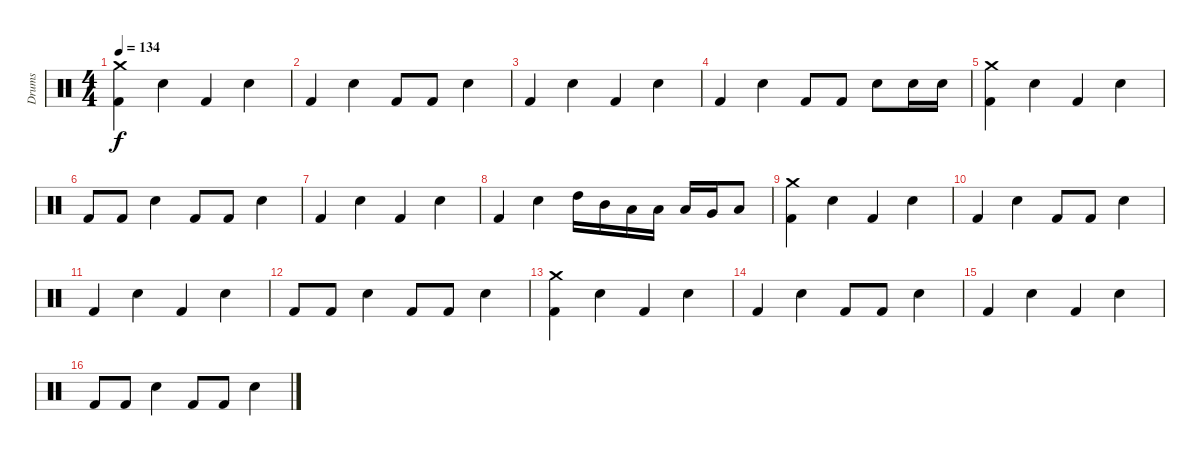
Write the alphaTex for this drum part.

\track ("Drums" "Drums") {instrument percussion}
\staff {score}
\articulation defaults
\ts (4 4)
\tempo 134
\clef neutral
\ks c
("Crash medium (hit)" "Kick (hit) 2").4{dy f} "Snare (hit) 2".4 "Kick (hit) 2".4 "Snare (hit) 2".4 |
"Kick (hit) 2".4 "Snare (hit) 2".4 "Kick (hit) 2".8 "Kick (hit) 2".8 "Snare (hit) 2".4 |
"Kick (hit) 2".4 "Snare (hit) 2".4 "Kick (hit) 2".4 "Snare (hit) 2".4 |
"Kick (hit) 2".4 "Snare (hit) 2".4 "Kick (hit) 2".8 "Kick (hit) 2".8 "Snare (hit) 2".8 "Snare (hit) 2".16 "Snare (hit) 2".16 |
("Crash medium (hit)" "Kick (hit) 2").4 "Snare (hit) 2".4 "Kick (hit) 2".4 "Snare (hit) 2".4 |
"Kick (hit) 2".8 "Kick (hit) 2".8 "Snare (hit) 2".4 "Kick (hit) 2".8 "Kick (hit) 2".8 "Snare (hit) 2".4 |
"Kick (hit) 2".4 "Snare (hit) 2".4 "Kick (hit) 2".4 "Snare (hit) 2".4 |
"Kick (hit) 2".4 "Snare (hit) 2".4 "High Tom (hit)".16 "Mid Tom (hit)".16 "Low Tom (hit)".16 "Low Tom (hit)".16 "Low Tom (hit)".16 "Very Low Tom (hit)".16 "Low Floor Tom (hit)".8 |
("Crash medium (hit)" "Kick (hit) 2").4 "Snare (hit) 2".4 "Kick (hit) 2".4 "Snare (hit) 2".4 |
"Kick (hit) 2".4 "Snare (hit) 2".4 "Kick (hit) 2".8 "Kick (hit) 2".8 "Snare (hit) 2".4 |
"Kick (hit) 2".4 "Snare (hit) 2".4 "Kick (hit) 2".4 "Snare (hit) 2".4 |
"Kick (hit) 2".8 "Kick (hit) 2".8 "Snare (hit) 2".4 "Kick (hit) 2".8 "Kick (hit) 2".8 "Snare (hit) 2".4 |
("Crash medium (hit)" "Kick (hit) 2").4 "Snare (hit) 2".4 "Kick (hit) 2".4 "Snare (hit) 2".4 |
"Kick (hit) 2".4 "Snare (hit) 2".4 "Kick (hit) 2".8 "Kick (hit) 2".8 "Snare (hit) 2".4 |
"Kick (hit) 2".4 "Snare (hit) 2".4 "Kick (hit) 2".4 "Snare (hit) 2".4 |
"Kick (hit) 2".8 "Kick (hit) 2".8 "Snare (hit) 2".4 "Kick (hit) 2".8 "Kick (hit) 2".8 "Snare (hit) 2".4
